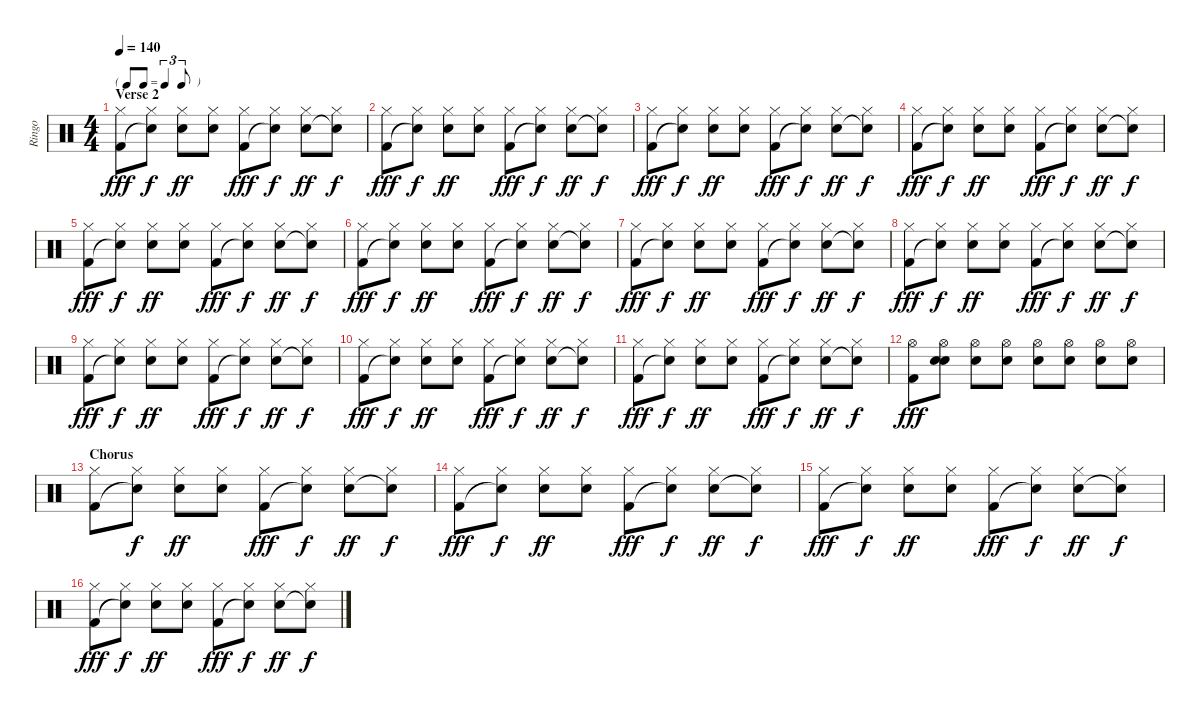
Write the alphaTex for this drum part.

\track ("Ringo" "Ringo") {instrument percussion}
\staff {score}
\articulation defaults
\ts (4 4)
\tf triplet8th
\section ("" "Verse 2")
\tempo 140
\clef neutral
\ks c
("Hi-Hat (closed)" "Kick (hit) 2").8{dy fff} ("Hi-Hat (closed)" "Snare (hit)"{t}).8{dy f} ("Hi-Hat (closed)" "Electric Snare (hit)").8{dy ff} ("Hi-Hat (closed)" "Electric Snare (hit)").8 ("Hi-Hat (closed)" "Kick (hit) 2").8{dy fff} ("Hi-Hat (closed)" "Snare (hit)"{t}).8{dy f} ("Hi-Hat (closed)" "Electric Snare (hit)").8{dy ff} ("Hi-Hat (closed)" "Snare (hit)"{t}).8{dy f} |
("Hi-Hat (closed)" "Kick (hit) 2").8{dy fff} ("Hi-Hat (closed)" "Snare (hit)"{t}).8{dy f} ("Hi-Hat (closed)" "Electric Snare (hit)").8{dy ff} ("Hi-Hat (closed)" "Electric Snare (hit)").8 ("Hi-Hat (closed)" "Kick (hit) 2").8{dy fff} ("Hi-Hat (closed)" "Snare (hit)"{t}).8{dy f} ("Hi-Hat (closed)" "Electric Snare (hit)").8{dy ff} ("Hi-Hat (closed)" "Snare (hit)"{t}).8{dy f} |
("Hi-Hat (closed)" "Kick (hit) 2").8{dy fff} ("Hi-Hat (closed)" "Snare (hit)"{t}).8{dy f} ("Hi-Hat (closed)" "Electric Snare (hit)").8{dy ff} ("Hi-Hat (closed)" "Electric Snare (hit)").8 ("Hi-Hat (closed)" "Kick (hit) 2").8{dy fff} ("Hi-Hat (closed)" "Snare (hit)"{t}).8{dy f} ("Hi-Hat (closed)" "Electric Snare (hit)").8{dy ff} ("Hi-Hat (closed)" "Snare (hit)"{t}).8{dy f} |
("Hi-Hat (closed)" "Kick (hit) 2").8{dy fff} ("Hi-Hat (closed)" "Snare (hit)"{t}).8{dy f} ("Hi-Hat (closed)" "Electric Snare (hit)").8{dy ff} ("Hi-Hat (closed)" "Electric Snare (hit)").8 ("Hi-Hat (closed)" "Kick (hit) 2").8{dy fff} ("Hi-Hat (closed)" "Snare (hit)"{t}).8{dy f} ("Hi-Hat (closed)" "Electric Snare (hit)").8{dy ff} ("Hi-Hat (closed)" "Snare (hit)"{t}).8{dy f} |
("Hi-Hat (closed)" "Kick (hit) 2").8{dy fff} ("Hi-Hat (closed)" "Snare (hit)"{t}).8{dy f} ("Hi-Hat (closed)" "Electric Snare (hit)").8{dy ff} ("Hi-Hat (closed)" "Electric Snare (hit)").8 ("Hi-Hat (closed)" "Kick (hit) 2").8{dy fff} ("Hi-Hat (closed)" "Snare (hit)"{t}).8{dy f} ("Hi-Hat (closed)" "Electric Snare (hit)").8{dy ff} ("Hi-Hat (closed)" "Snare (hit)"{t}).8{dy f} |
("Hi-Hat (closed)" "Kick (hit) 2").8{dy fff} ("Hi-Hat (closed)" "Snare (hit)"{t}).8{dy f} ("Hi-Hat (closed)" "Electric Snare (hit)").8{dy ff} ("Hi-Hat (closed)" "Electric Snare (hit)").8 ("Hi-Hat (closed)" "Kick (hit) 2").8{dy fff} ("Hi-Hat (closed)" "Snare (hit)"{t}).8{dy f} ("Hi-Hat (closed)" "Electric Snare (hit)").8{dy ff} ("Hi-Hat (closed)" "Snare (hit)"{t}).8{dy f} |
("Hi-Hat (closed)" "Kick (hit) 2").8{dy fff} ("Hi-Hat (closed)" "Snare (hit)"{t}).8{dy f} ("Hi-Hat (closed)" "Electric Snare (hit)").8{dy ff} ("Hi-Hat (closed)" "Electric Snare (hit)").8 ("Hi-Hat (closed)" "Kick (hit) 2").8{dy fff} ("Hi-Hat (closed)" "Snare (hit)"{t}).8{dy f} ("Hi-Hat (closed)" "Electric Snare (hit)").8{dy ff} ("Hi-Hat (closed)" "Snare (hit)"{t}).8{dy f} |
("Hi-Hat (closed)" "Kick (hit) 2").8{dy fff} ("Hi-Hat (closed)" "Snare (hit)"{t}).8{dy f} ("Hi-Hat (closed)" "Electric Snare (hit)").8{dy ff} ("Hi-Hat (closed)" "Electric Snare (hit)").8 ("Hi-Hat (closed)" "Kick (hit) 2").8{dy fff} ("Hi-Hat (closed)" "Snare (hit)"{t}).8{dy f} ("Hi-Hat (closed)" "Electric Snare (hit)").8{dy ff} ("Hi-Hat (closed)" "Snare (hit)"{t}).8{dy f} |
("Hi-Hat (closed)" "Kick (hit) 2").8{dy fff} ("Hi-Hat (closed)" "Snare (hit)"{t}).8{dy f} ("Hi-Hat (closed)" "Electric Snare (hit)").8{dy ff} ("Hi-Hat (closed)" "Electric Snare (hit)").8 ("Hi-Hat (closed)" "Kick (hit) 2").8{dy fff} ("Hi-Hat (closed)" "Snare (hit)"{t}).8{dy f} ("Hi-Hat (closed)" "Electric Snare (hit)").8{dy ff} ("Hi-Hat (closed)" "Snare (hit)"{t}).8{dy f} |
("Hi-Hat (closed)" "Kick (hit) 2").8{dy fff} ("Hi-Hat (closed)" "Snare (hit)"{t}).8{dy f} ("Hi-Hat (closed)" "Electric Snare (hit)").8{dy ff} ("Hi-Hat (closed)" "Electric Snare (hit)").8 ("Hi-Hat (closed)" "Kick (hit) 2").8{dy fff} ("Hi-Hat (closed)" "Snare (hit)"{t}).8{dy f} ("Hi-Hat (closed)" "Electric Snare (hit)").8{dy ff} ("Hi-Hat (closed)" "Snare (hit)"{t}).8{dy f} |
("Hi-Hat (closed)" "Kick (hit) 2").8{dy fff} ("Hi-Hat (closed)" "Snare (hit)"{t}).8{dy f} ("Hi-Hat (closed)" "Electric Snare (hit)").8{dy ff} ("Hi-Hat (closed)" "Electric Snare (hit)").8 ("Hi-Hat (closed)" "Kick (hit) 2").8{dy fff} ("Hi-Hat (closed)" "Snare (hit)"{t}).8{dy f} ("Hi-Hat (closed)" "Electric Snare (hit)").8{dy ff} ("Hi-Hat (closed)" "Snare (hit)"{t}).8{dy f} |
("Hi-Hat (open)" "Kick (hit) 2").8{dy fff} ("Hi-Hat (open)" "Electric Snare (hit)" "Snare (hit)").8 ("Hi-Hat (open)" "Electric Snare (hit)").8 ("Hi-Hat (open)" "Electric Snare (hit)").8 ("Hi-Hat (open)" "Electric Snare (hit)").8 ("Hi-Hat (open)" "Electric Snare (hit)").8 ("Hi-Hat (open)" "Electric Snare (hit)").8 ("Hi-Hat (open)" "Electric Snare (hit)").8 |
\section ("" "Chorus")
("Hi-Hat (closed)" "Kick (hit) 2").8 ("Hi-Hat (closed)" "Snare (hit)"{t}).8{dy f} ("Hi-Hat (closed)" "Electric Snare (hit)").8{dy ff} ("Hi-Hat (closed)" "Electric Snare (hit)").8 ("Hi-Hat (closed)" "Kick (hit) 2").8{dy fff} ("Hi-Hat (closed)" "Snare (hit)"{t}).8{dy f} ("Hi-Hat (closed)" "Electric Snare (hit)").8{dy ff} ("Hi-Hat (closed)" "Snare (hit)"{t}).8{dy f} |
("Hi-Hat (closed)" "Kick (hit) 2").8{dy fff} ("Hi-Hat (closed)" "Snare (hit)"{t}).8{dy f} ("Hi-Hat (closed)" "Electric Snare (hit)").8{dy ff} ("Hi-Hat (closed)" "Electric Snare (hit)").8 ("Hi-Hat (closed)" "Kick (hit) 2").8{dy fff} ("Hi-Hat (closed)" "Snare (hit)"{t}).8{dy f} ("Hi-Hat (closed)" "Electric Snare (hit)").8{dy ff} ("Hi-Hat (closed)" "Snare (hit)"{t}).8{dy f} |
("Hi-Hat (closed)" "Kick (hit) 2").8{dy fff} ("Hi-Hat (closed)" "Snare (hit)"{t}).8{dy f} ("Hi-Hat (closed)" "Electric Snare (hit)").8{dy ff} ("Hi-Hat (closed)" "Electric Snare (hit)").8 ("Hi-Hat (closed)" "Kick (hit) 2").8{dy fff} ("Hi-Hat (closed)" "Snare (hit)"{t}).8{dy f} ("Hi-Hat (closed)" "Electric Snare (hit)").8{dy ff} ("Hi-Hat (closed)" "Snare (hit)"{t}).8{dy f} |
("Hi-Hat (closed)" "Kick (hit) 2").8{dy fff} ("Hi-Hat (closed)" "Snare (hit)"{t}).8{dy f} ("Hi-Hat (closed)" "Electric Snare (hit)").8{dy ff} ("Hi-Hat (closed)" "Electric Snare (hit)").8 ("Hi-Hat (closed)" "Kick (hit) 2").8{dy fff} ("Hi-Hat (closed)" "Snare (hit)"{t}).8{dy f} ("Hi-Hat (closed)" "Electric Snare (hit)").8{dy ff} ("Hi-Hat (closed)" "Snare (hit)"{t}).8{dy f}
